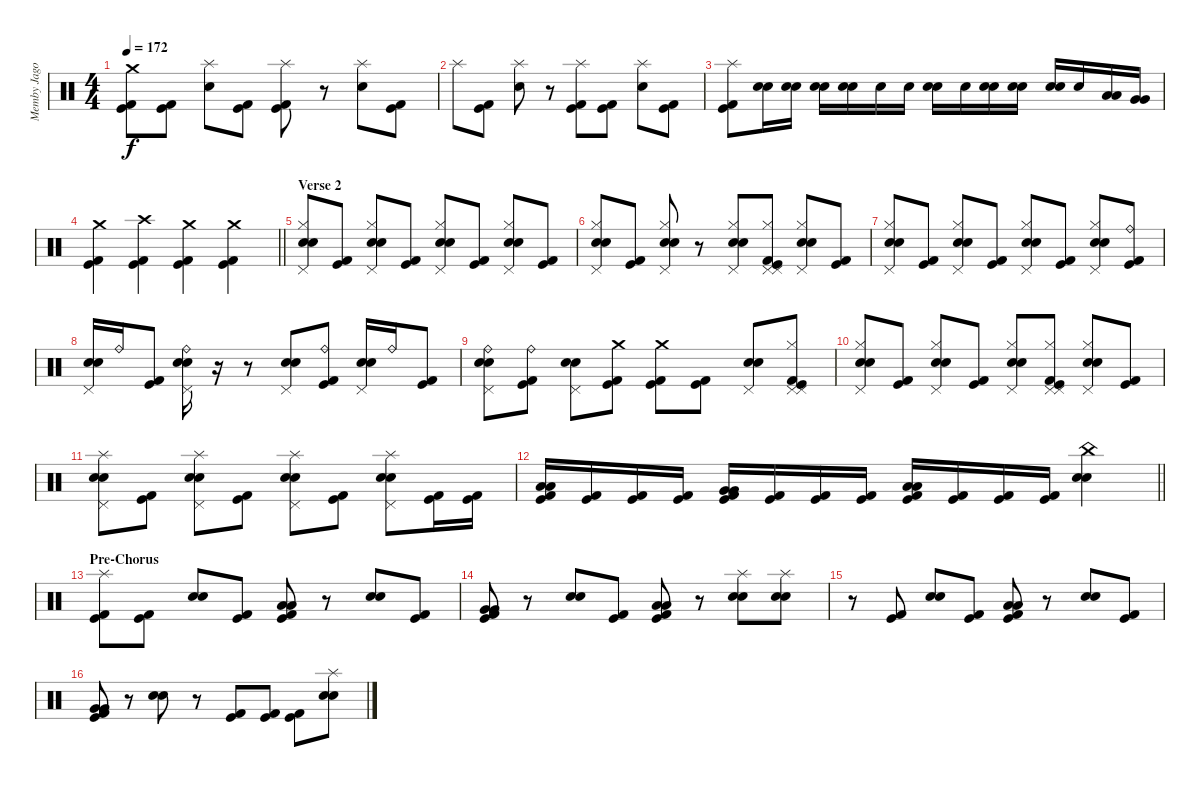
\track ("Memby Jago" "Memby Jago") {instrument percussion}
\staff {score}
\articulation defaults
\ts (4 4)
\tempo 172
\clef neutral
\ks c
("Crash medium (hit)" "Kick (hit)" "Kick (hit) 2").8{dy f} ("Kick (hit)" "Kick (hit) 2").8 ("Splash (hit)" "Snare (hit) 2").8 ("Kick (hit)" "Kick (hit) 2").8 ("Splash (hit)" "Kick (hit)" "Kick (hit) 2").8 r.8 ("Splash (hit)" "Snare (hit) 2").8 ("Kick (hit)" "Kick (hit) 2").8 |
"Splash (hit)".8 ("Kick (hit)" "Kick (hit) 2").8 ("Splash (hit)" "Snare (hit) 2").8 r.8 ("Splash (hit)" "Kick (hit)" "Kick (hit) 2").8 ("Kick (hit)" "Kick (hit) 2").8 ("Splash (hit)" "Snare (hit) 2").8 ("Kick (hit)" "Kick (hit) 2").8 |
("Splash (hit)" "Kick (hit)" "Kick (hit) 2").8 ("Electric Snare (hit)" "Snare (hit) 2").16 ("Electric Snare (hit)" "Snare (hit) 2").16 ("Electric Snare (hit)" "Snare (hit) 2").16 ("Electric Snare (hit)" "Snare (hit) 2").16 "Snare (hit) 2".16 "Snare (hit) 2".16 ("Electric Snare (hit)" "Snare (hit) 2").16 "Snare (hit) 2".16 ("Electric Snare (hit)" "Snare (hit) 2").16 ("Electric Snare (hit)" "Snare (hit) 2").16 ("Electric Snare (hit)" "Snare (hit) 2").16 "Snare (hit) 2".16 ("Low Tom (hit)" "Low Tom (hit)").16 ("Very Low Tom (hit)" "Very Low Tom (hit)").16 |
\barLineRight lightlight
("Crash medium (hit)" "Kick (hit)" "Kick (hit) 2").4 ("Crash high (hit)" "Kick (hit)" "Kick (hit) 2").4 ("Crash medium (hit)" "Kick (hit)" "Kick (hit) 2").4 ("Crash medium (hit)" "Kick (hit)" "Kick (hit) 2").4 |
\section ("" "Verse 2")
("Hi-Hat (closed)" "Pedal Hi-Hat (hit)" "Electric Snare (hit)" "Snare (hit) 2").8 ("Kick (hit)" "Kick (hit) 2").8 ("Hi-Hat (closed)" "Pedal Hi-Hat (hit)" "Electric Snare (hit)" "Snare (hit) 2").8 ("Kick (hit)" "Kick (hit) 2").8 ("Hi-Hat (closed)" "Pedal Hi-Hat (hit)" "Electric Snare (hit)" "Snare (hit) 2").8 ("Kick (hit)" "Kick (hit) 2").8 ("Hi-Hat (closed)" "Pedal Hi-Hat (hit)" "Electric Snare (hit)" "Snare (hit) 2").8 ("Kick (hit)" "Kick (hit) 2").8 |
("Hi-Hat (closed)" "Pedal Hi-Hat (hit)" "Electric Snare (hit)" "Snare (hit) 2").8 ("Kick (hit)" "Kick (hit) 2").8 ("Hi-Hat (closed)" "Pedal Hi-Hat (hit)" "Electric Snare (hit)" "Snare (hit) 2").8 r.8 ("Hi-Hat (closed)" "Pedal Hi-Hat (hit)" "Electric Snare (hit)" "Snare (hit) 2").8 ("Hi-Hat (closed)" "Pedal Hi-Hat (hit)" "Pedal Hi-Hat (hit)" "Kick (hit)" "Kick (hit) 2").8 ("Hi-Hat (closed)" "Pedal Hi-Hat (hit)" "Electric Snare (hit)" "Snare (hit) 2").8 ("Kick (hit)" "Kick (hit) 2").8 |
("Hi-Hat (closed)" "Pedal Hi-Hat (hit)" "Electric Snare (hit)" "Snare (hit) 2").8 ("Kick (hit)" "Kick (hit) 2").8 ("Hi-Hat (closed)" "Pedal Hi-Hat (hit)" "Electric Snare (hit)" "Snare (hit) 2").8 ("Kick (hit)" "Kick (hit) 2").8 ("Hi-Hat (closed)" "Pedal Hi-Hat (hit)" "Electric Snare (hit)" "Snare (hit) 2").8 ("Kick (hit)" "Kick (hit) 2").8 ("Hi-Hat (closed)" "Pedal Hi-Hat (hit)" "Electric Snare (hit)" "Snare (hit) 2").8 ("Ride (bell)" "Kick (hit)" "Kick (hit) 2").8 |
("Pedal Hi-Hat (hit)" "Electric Snare (hit)" "Snare (hit) 2").16 "Ride (bell)".16 ("Kick (hit)" "Kick (hit) 2").8 ("Ride (bell)" "Pedal Hi-Hat (hit)" "Electric Snare (hit)" "Snare (hit) 2").16 r.16 r.8 ("Pedal Hi-Hat (hit)" "Electric Snare (hit)" "Snare (hit) 2").8 ("Ride (bell)" "Kick (hit)" "Kick (hit) 2").8 ("Pedal Hi-Hat (hit)" "Electric Snare (hit)" "Snare (hit) 2").16 "Ride (bell)".16 ("Kick (hit)" "Kick (hit) 2").8 |
("Ride (bell)" "Pedal Hi-Hat (hit)" "Electric Snare (hit)" "Snare (hit) 2").8 ("Ride (bell)" "Kick (hit)" "Kick (hit) 2").8 ("Pedal Hi-Hat (hit)" "Electric Snare (hit)" "Snare (hit) 2").8 ("Crash medium (hit)" "Kick (hit)" "Kick (hit) 2").8 ("Crash medium (hit)" "Kick (hit)" "Kick (hit) 2").8 ("Kick (hit)" "Kick (hit) 2").8 ("Pedal Hi-Hat (hit)" "Electric Snare (hit)" "Snare (hit) 2").8 ("Hi-Hat (closed)" "Pedal Hi-Hat (hit)" "Pedal Hi-Hat (hit)" "Kick (hit)" "Kick (hit) 2").8 |
("Hi-Hat (closed)" "Pedal Hi-Hat (hit)" "Electric Snare (hit)" "Snare (hit) 2").8 ("Kick (hit)" "Kick (hit) 2").8 ("Hi-Hat (closed)" "Pedal Hi-Hat (hit)" "Electric Snare (hit)" "Snare (hit) 2").8 ("Kick (hit)" "Kick (hit) 2").8 ("Hi-Hat (closed)" "Pedal Hi-Hat (hit)" "Electric Snare (hit)" "Snare (hit) 2").8 ("Hi-Hat (closed)" "Pedal Hi-Hat (hit)" "Pedal Hi-Hat (hit)" "Kick (hit)" "Kick (hit) 2").8 ("Hi-Hat (closed)" "Pedal Hi-Hat (hit)" "Electric Snare (hit)" "Snare (hit) 2").8 ("Kick (hit)" "Kick (hit) 2").8 |
("Splash (hit)" "Pedal Hi-Hat (hit)" "Electric Snare (hit)" "Snare (hit) 2").8 ("Kick (hit)" "Kick (hit) 2").8 ("Splash (hit)" "Pedal Hi-Hat (hit)" "Electric Snare (hit)" "Snare (hit) 2").8 ("Kick (hit)" "Kick (hit) 2").8 ("Splash (hit)" "Pedal Hi-Hat (hit)" "Electric Snare (hit)" "Snare (hit) 2").8 ("Kick (hit)" "Kick (hit) 2").8 ("Splash (hit)" "Pedal Hi-Hat (hit)" "Electric Snare (hit)" "Snare (hit) 2").8 ("Kick (hit)" "Kick (hit) 2").16 ("Kick (hit)" "Kick (hit) 2").16 |
\barLineRight lightlight
("Low Tom (hit)" "Low Tom (hit)" "Kick (hit)" "Kick (hit) 2").16 ("Kick (hit)" "Kick (hit) 2").16 ("Kick (hit)" "Kick (hit) 2").16 ("Kick (hit)" "Kick (hit) 2").16 ("Very Low Tom (hit)" "Very Low Tom (hit)" "Kick (hit)" "Kick (hit) 2").16 ("Kick (hit)" "Kick (hit) 2").16 ("Kick (hit)" "Kick (hit) 2").16 ("Kick (hit)" "Kick (hit) 2").16 ("Low Tom (hit)" "Low Tom (hit)" "Kick (hit)" "Kick (hit) 2").16 ("Kick (hit)" "Kick (hit) 2").16 ("Kick (hit)" "Kick (hit) 2").16 ("Kick (hit)" "Kick (hit) 2").16 ("China (hit)" "Electric Snare (hit)" "Snare (hit) 2").4 |
\section ("" "Pre-Chorus")
("Splash (hit)" "Kick (hit)" "Kick (hit) 2").8 ("Kick (hit)" "Kick (hit) 2").8 ("Electric Snare (hit)" "Snare (hit) 2").8 ("Kick (hit)" "Kick (hit) 2").8 ("Low Tom (hit)" "Low Tom (hit)" "Kick (hit)" "Kick (hit) 2").8 r.8 ("Electric Snare (hit)" "Snare (hit) 2").8 ("Kick (hit)" "Kick (hit) 2").8 |
("Very Low Tom (hit)" "Very Low Tom (hit)" "Kick (hit)" "Kick (hit) 2").8 r.8 ("Electric Snare (hit)" "Snare (hit) 2").8 ("Kick (hit)" "Kick (hit) 2").8 ("Low Floor Tom (hit)" "Low Floor Tom (hit)" "Kick (hit)" "Kick (hit) 2").8 r.8 ("Splash (hit)" "Electric Snare (hit)" "Snare (hit) 2").8 ("Splash (hit)" "Electric Snare (hit)" "Snare (hit) 2").8 |
r.8 ("Kick (hit)" "Kick (hit) 2").8 ("Electric Snare (hit)" "Snare (hit) 2").8 ("Kick (hit)" "Kick (hit) 2").8 ("Low Tom (hit)" "Low Tom (hit)" "Kick (hit)" "Kick (hit) 2").8 r.8 ("Electric Snare (hit)" "Snare (hit) 2").8 ("Kick (hit)" "Kick (hit) 2").8 |
("Very Low Tom (hit)" "Very Low Tom (hit)" "Kick (hit)" "Kick (hit) 2").8 r.8 ("Electric Snare (hit)" "Snare (hit) 2").8 r.8 ("Kick (hit)" "Kick (hit) 2").8 ("Kick (hit)" "Kick (hit) 2").8 ("Kick (hit)" "Kick (hit) 2").8 ("Splash (hit)" "Electric Snare (hit)" "Snare (hit) 2").8
